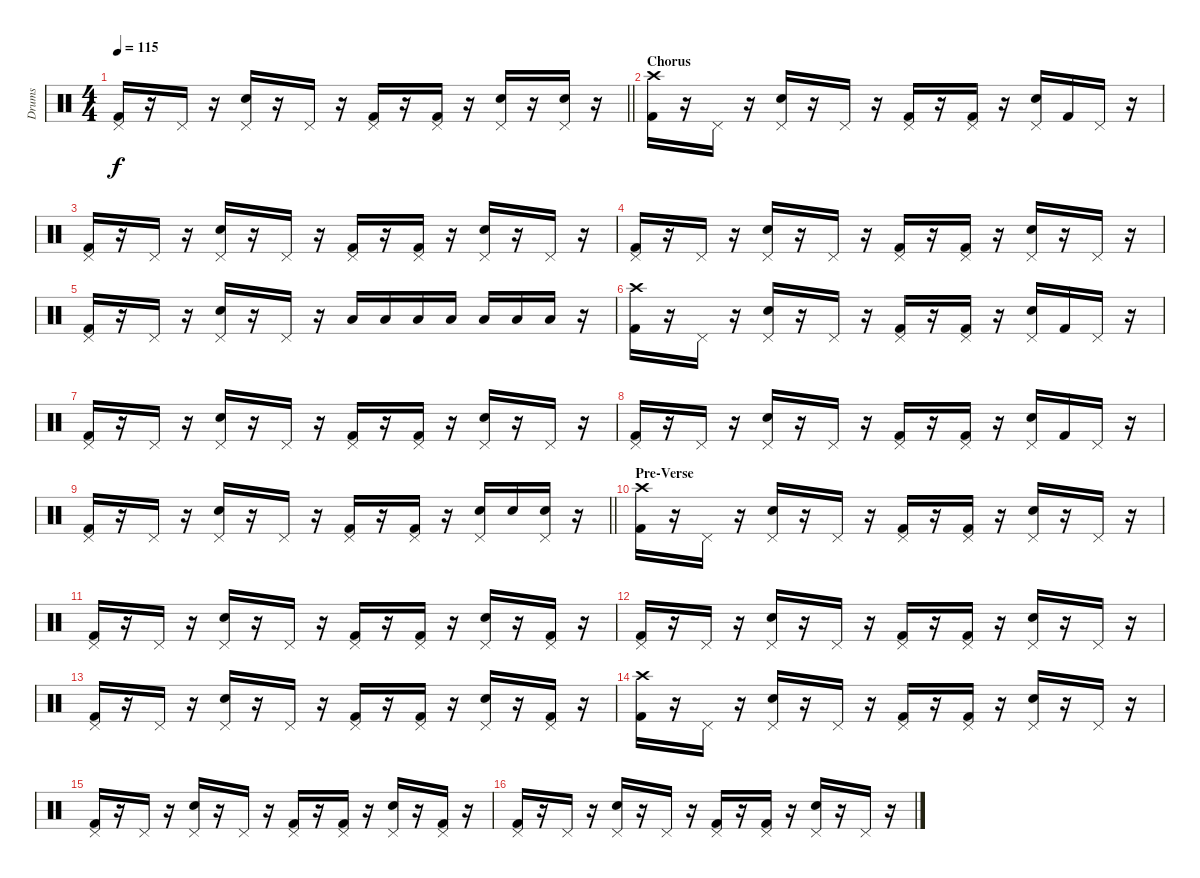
\track ("Drums" "Drums") {instrument percussion}
\staff {score}
\articulation defaults
\ts (4 4)
\tempo 115
\clef neutral
\barLineRight lightlight
\ks c
("Pedal Hi-Hat (hit)" "Kick (hit) 2").16{dy f} r.16 "Pedal Hi-Hat (hit)".16 r.16 ("Pedal Hi-Hat (hit)" "Snare (hit) 2").16 r.16 "Pedal Hi-Hat (hit)".16 r.16 ("Pedal Hi-Hat (hit)" "Kick (hit) 2").16 r.16 ("Pedal Hi-Hat (hit)" "Kick (hit) 2").16 r.16 ("Pedal Hi-Hat (hit)" "Snare (hit) 2").16 r.16 ("Pedal Hi-Hat (hit)" "Snare (hit) 2").16 r.16 |
\section ("" "Chorus")
("Crash high (hit)" "Kick (hit) 2").16 r.16 "Pedal Hi-Hat (hit)".16 r.16 ("Pedal Hi-Hat (hit)" "Snare (hit) 2").16 r.16 "Pedal Hi-Hat (hit)".16 r.16 ("Pedal Hi-Hat (hit)" "Kick (hit) 2").16 r.16 ("Pedal Hi-Hat (hit)" "Kick (hit) 2").16 r.16 ("Pedal Hi-Hat (hit)" "Snare (hit) 2").16 "Kick (hit) 2".16 "Pedal Hi-Hat (hit)".16 r.16 |
("Pedal Hi-Hat (hit)" "Kick (hit) 2").16 r.16 "Pedal Hi-Hat (hit)".16 r.16 ("Pedal Hi-Hat (hit)" "Snare (hit) 2").16 r.16 "Pedal Hi-Hat (hit)".16 r.16 ("Pedal Hi-Hat (hit)" "Kick (hit) 2").16 r.16 ("Pedal Hi-Hat (hit)" "Kick (hit) 2").16 r.16 ("Pedal Hi-Hat (hit)" "Snare (hit) 2").16 r.16 "Pedal Hi-Hat (hit)".16 r.16 |
("Pedal Hi-Hat (hit)" "Kick (hit) 2").16 r.16 "Pedal Hi-Hat (hit)".16 r.16 ("Pedal Hi-Hat (hit)" "Snare (hit) 2").16 r.16 "Pedal Hi-Hat (hit)".16 r.16 ("Pedal Hi-Hat (hit)" "Kick (hit) 2").16 r.16 ("Pedal Hi-Hat (hit)" "Kick (hit) 2").16 r.16 ("Pedal Hi-Hat (hit)" "Snare (hit) 2").16 r.16 "Pedal Hi-Hat (hit)".16 r.16 |
("Pedal Hi-Hat (hit)" "Kick (hit) 2").16 r.16 "Pedal Hi-Hat (hit)".16 r.16 ("Pedal Hi-Hat (hit)" "Snare (hit) 2").16 r.16 "Pedal Hi-Hat (hit)".16 r.16 "Low Tom (hit)".16 "Low Tom (hit)".16 "Low Tom (hit)".16 "Low Tom (hit)".16 "Low Tom (hit)".16 "Low Tom (hit)".16 "Low Tom (hit)".16 r.16 |
("Crash high (hit)" "Kick (hit) 2").16 r.16 "Pedal Hi-Hat (hit)".16 r.16 ("Pedal Hi-Hat (hit)" "Snare (hit) 2").16 r.16 "Pedal Hi-Hat (hit)".16 r.16 ("Pedal Hi-Hat (hit)" "Kick (hit) 2").16 r.16 ("Pedal Hi-Hat (hit)" "Kick (hit) 2").16 r.16 ("Pedal Hi-Hat (hit)" "Snare (hit) 2").16 "Kick (hit) 2".16 "Pedal Hi-Hat (hit)".16 r.16 |
("Pedal Hi-Hat (hit)" "Kick (hit) 2").16 r.16 "Pedal Hi-Hat (hit)".16 r.16 ("Pedal Hi-Hat (hit)" "Snare (hit) 2").16 r.16 "Pedal Hi-Hat (hit)".16 r.16 ("Pedal Hi-Hat (hit)" "Kick (hit) 2").16 r.16 ("Pedal Hi-Hat (hit)" "Kick (hit) 2").16 r.16 ("Pedal Hi-Hat (hit)" "Snare (hit) 2").16 r.16 "Pedal Hi-Hat (hit)".16 r.16 |
("Pedal Hi-Hat (hit)" "Kick (hit) 2").16 r.16 "Pedal Hi-Hat (hit)".16 r.16 ("Pedal Hi-Hat (hit)" "Snare (hit) 2").16 r.16 "Pedal Hi-Hat (hit)".16 r.16 ("Pedal Hi-Hat (hit)" "Kick (hit) 2").16 r.16 ("Pedal Hi-Hat (hit)" "Kick (hit) 2").16 r.16 ("Pedal Hi-Hat (hit)" "Snare (hit) 2").16 "Kick (hit) 2".16 "Pedal Hi-Hat (hit)".16 r.16 |
\barLineRight lightlight
("Pedal Hi-Hat (hit)" "Kick (hit) 2").16 r.16 "Pedal Hi-Hat (hit)".16 r.16 ("Pedal Hi-Hat (hit)" "Snare (hit) 2").16 r.16 "Pedal Hi-Hat (hit)".16 r.16 ("Pedal Hi-Hat (hit)" "Kick (hit) 2").16 r.16 ("Pedal Hi-Hat (hit)" "Kick (hit) 2").16 r.16 ("Pedal Hi-Hat (hit)" "Snare (hit) 2").16 "Snare (hit) 2".16 ("Pedal Hi-Hat (hit)" "Snare (hit) 2").16 r.16 |
\section ("" "Pre-Verse")
("Crash high (hit)" "Kick (hit) 2").16 r.16 "Pedal Hi-Hat (hit)".16 r.16 ("Pedal Hi-Hat (hit)" "Snare (hit) 2").16 r.16 "Pedal Hi-Hat (hit)".16 r.16 ("Pedal Hi-Hat (hit)" "Kick (hit) 2").16 r.16 ("Pedal Hi-Hat (hit)" "Kick (hit) 2").16 r.16 ("Pedal Hi-Hat (hit)" "Snare (hit) 2").16 r.16 "Pedal Hi-Hat (hit)".16 r.16 |
("Pedal Hi-Hat (hit)" "Kick (hit) 2").16 r.16 "Pedal Hi-Hat (hit)".16 r.16 ("Pedal Hi-Hat (hit)" "Snare (hit) 2").16 r.16 "Pedal Hi-Hat (hit)".16 r.16 ("Pedal Hi-Hat (hit)" "Kick (hit) 2").16 r.16 ("Pedal Hi-Hat (hit)" "Kick (hit) 2").16 r.16 ("Pedal Hi-Hat (hit)" "Snare (hit) 2").16 r.16 ("Pedal Hi-Hat (hit)" "Kick (hit) 2").16 r.16 |
("Pedal Hi-Hat (hit)" "Kick (hit) 2").16 r.16 "Pedal Hi-Hat (hit)".16 r.16 ("Pedal Hi-Hat (hit)" "Snare (hit) 2").16 r.16 "Pedal Hi-Hat (hit)".16 r.16 ("Pedal Hi-Hat (hit)" "Kick (hit) 2").16 r.16 ("Pedal Hi-Hat (hit)" "Kick (hit) 2").16 r.16 ("Pedal Hi-Hat (hit)" "Snare (hit) 2").16 r.16 "Pedal Hi-Hat (hit)".16 r.16 |
("Pedal Hi-Hat (hit)" "Kick (hit) 2").16 r.16 "Pedal Hi-Hat (hit)".16 r.16 ("Pedal Hi-Hat (hit)" "Snare (hit) 2").16 r.16 "Pedal Hi-Hat (hit)".16 r.16 ("Pedal Hi-Hat (hit)" "Kick (hit) 2").16 r.16 ("Pedal Hi-Hat (hit)" "Kick (hit) 2").16 r.16 ("Pedal Hi-Hat (hit)" "Snare (hit) 2").16 r.16 ("Pedal Hi-Hat (hit)" "Kick (hit) 2").16 r.16 |
("Crash high (hit)" "Kick (hit) 2").16 r.16 "Pedal Hi-Hat (hit)".16 r.16 ("Pedal Hi-Hat (hit)" "Snare (hit) 2").16 r.16 "Pedal Hi-Hat (hit)".16 r.16 ("Pedal Hi-Hat (hit)" "Kick (hit) 2").16 r.16 ("Pedal Hi-Hat (hit)" "Kick (hit) 2").16 r.16 ("Pedal Hi-Hat (hit)" "Snare (hit) 2").16 r.16 "Pedal Hi-Hat (hit)".16 r.16 |
("Pedal Hi-Hat (hit)" "Kick (hit) 2").16 r.16 "Pedal Hi-Hat (hit)".16 r.16 ("Pedal Hi-Hat (hit)" "Snare (hit) 2").16 r.16 "Pedal Hi-Hat (hit)".16 r.16 ("Pedal Hi-Hat (hit)" "Kick (hit) 2").16 r.16 ("Pedal Hi-Hat (hit)" "Kick (hit) 2").16 r.16 ("Pedal Hi-Hat (hit)" "Snare (hit) 2").16 r.16 ("Pedal Hi-Hat (hit)" "Kick (hit) 2").16 r.16 |
("Pedal Hi-Hat (hit)" "Kick (hit) 2").16 r.16 "Pedal Hi-Hat (hit)".16 r.16 ("Pedal Hi-Hat (hit)" "Snare (hit) 2").16 r.16 "Pedal Hi-Hat (hit)".16 r.16 ("Pedal Hi-Hat (hit)" "Kick (hit) 2").16 r.16 ("Pedal Hi-Hat (hit)" "Kick (hit) 2").16 r.16 ("Pedal Hi-Hat (hit)" "Snare (hit) 2").16 r.16 "Pedal Hi-Hat (hit)".16 r.16
